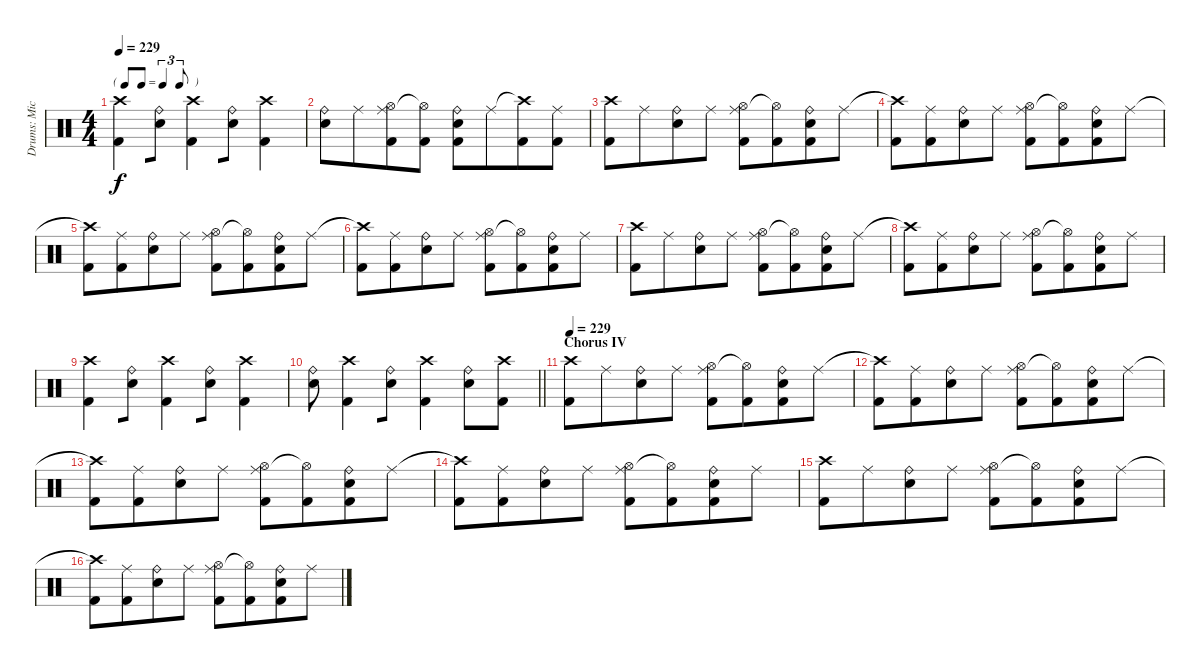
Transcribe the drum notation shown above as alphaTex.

\track ("Drums: Mick" "Drums: Mic") {instrument percussion}
\staff {score}
\articulation defaults
\ts (4 4)
\tf triplet8th
\tempo 229
\clef neutral
\ks c
("Crash high (hit)" "Kick (hit) 2").4{dy f beam merge} ("Ride (bell)" "Snare (hit) 2").8 ("Crash high (hit)" "Kick (hit) 2").4{beam merge} ("Ride (bell)" "Snare (hit) 2").8 ("Crash high (hit)" "Kick (hit) 2").4 |
("Ride (bell)" "Snare (hit) 2").8 "Ride (middle)".8{beam merge} ("Ride (middle)" "Hi-Hat (open)" "Kick (hit) 2").8 ("Hi-Hat (open)"{t} "Kick (hit) 2").8{beam split} ("Ride (bell)" "Snare (hit) 2" "Kick (hit) 2").8 "Ride (middle)".8{beam merge} ("Crash high (hit)"{t} "Kick (hit) 2").8 ("Ride (middle)" "Kick (hit) 2").8 |
("Crash high (hit)" "Kick (hit) 2").8 "Ride (middle)".8{beam merge} ("Ride (bell)" "Snare (hit) 2").8 "Ride (middle)".8 ("Ride (middle)" "Hi-Hat (open)" "Kick (hit) 2").8 ("Hi-Hat (open)"{t} "Kick (hit) 2").8{beam merge} ("Ride (bell)" "Snare (hit) 2" "Kick (hit) 2").8 "Ride (middle)".8 |
("Crash high (hit)"{t} "Kick (hit) 2").8 ("Ride (middle)" "Kick (hit) 2").8{beam merge} ("Ride (bell)" "Snare (hit) 2").8 "Ride (middle)".8 ("Ride (middle)" "Hi-Hat (open)" "Kick (hit) 2").8 ("Hi-Hat (open)"{t} "Kick (hit) 2").8{beam merge} ("Ride (bell)" "Snare (hit) 2" "Kick (hit) 2").8 "Ride (middle)".8 |
("Crash high (hit)"{t} "Kick (hit) 2").8 ("Ride (middle)" "Kick (hit) 2").8{beam merge} ("Ride (bell)" "Snare (hit) 2").8 "Ride (middle)".8 ("Ride (middle)" "Hi-Hat (open)" "Kick (hit) 2").8 ("Hi-Hat (open)"{t} "Kick (hit) 2").8{beam merge} ("Ride (bell)" "Snare (hit) 2" "Kick (hit) 2").8 "Ride (middle)".8 |
("Crash high (hit)"{t} "Kick (hit) 2").8 ("Ride (middle)" "Kick (hit) 2").8{beam merge} ("Ride (bell)" "Snare (hit) 2").8 "Ride (middle)".8 ("Ride (middle)" "Hi-Hat (open)" "Kick (hit) 2").8 ("Hi-Hat (open)"{t} "Kick (hit) 2").8{beam merge} ("Ride (bell)" "Snare (hit) 2" "Kick (hit) 2").8 "Ride (middle)".8 |
("Crash high (hit)" "Kick (hit) 2").8 "Ride (middle)".8{beam merge} ("Ride (bell)" "Snare (hit) 2").8 "Ride (middle)".8 ("Ride (middle)" "Hi-Hat (open)" "Kick (hit) 2").8 ("Hi-Hat (open)"{t} "Kick (hit) 2").8{beam merge} ("Ride (bell)" "Snare (hit) 2" "Kick (hit) 2").8 "Ride (middle)".8 |
("Crash high (hit)"{t} "Kick (hit) 2").8 ("Ride (middle)" "Kick (hit) 2").8{beam merge} ("Ride (bell)" "Snare (hit) 2").8 "Ride (middle)".8 ("Ride (middle)" "Hi-Hat (open)" "Kick (hit) 2").8 ("Hi-Hat (open)"{t} "Kick (hit) 2").8{beam merge} ("Ride (bell)" "Snare (hit) 2" "Kick (hit) 2").8 "Ride (middle)".8 |
("Crash high (hit)" "Kick (hit) 2").4{beam merge} ("Ride (bell)" "Snare (hit) 2").8 ("Crash high (hit)" "Kick (hit) 2").4{beam merge} ("Ride (bell)" "Snare (hit) 2").8 ("Crash high (hit)" "Kick (hit) 2").4 |
\barLineRight lightlight
("Ride (bell)" "Snare (hit) 2").8 ("Crash high (hit)" "Kick (hit) 2").4{beam merge} ("Ride (bell)" "Snare (hit) 2").8 ("Crash high (hit)" "Kick (hit) 2").4{beam merge} ("Ride (bell)" "Snare (hit) 2").8 ("Crash high (hit)" "Kick (hit) 2").8 |
\section ("" "Chorus IV")
\tempo 229
("Crash high (hit)" "Kick (hit) 2").8 "Ride (middle)".8{beam merge} ("Ride (bell)" "Snare (hit) 2").8 "Ride (middle)".8 ("Ride (middle)" "Hi-Hat (open)" "Kick (hit) 2").8 ("Hi-Hat (open)"{t} "Kick (hit) 2").8{beam merge} ("Ride (bell)" "Snare (hit) 2" "Kick (hit) 2").8 "Ride (middle)".8 |
("Crash high (hit)"{t} "Kick (hit) 2").8 ("Ride (middle)" "Kick (hit) 2").8{beam merge} ("Ride (bell)" "Snare (hit) 2").8 "Ride (middle)".8 ("Ride (middle)" "Hi-Hat (open)" "Kick (hit) 2").8 ("Hi-Hat (open)"{t} "Kick (hit) 2").8{beam merge} ("Ride (bell)" "Snare (hit) 2" "Kick (hit) 2").8 "Ride (middle)".8 |
("Crash high (hit)"{t} "Kick (hit) 2").8 ("Ride (middle)" "Kick (hit) 2").8{beam merge} ("Ride (bell)" "Snare (hit) 2").8 "Ride (middle)".8 ("Ride (middle)" "Hi-Hat (open)" "Kick (hit) 2").8 ("Hi-Hat (open)"{t} "Kick (hit) 2").8{beam merge} ("Ride (bell)" "Snare (hit) 2" "Kick (hit) 2").8 "Ride (middle)".8 |
("Crash high (hit)"{t} "Kick (hit) 2").8 ("Ride (middle)" "Kick (hit) 2").8{beam merge} ("Ride (bell)" "Snare (hit) 2").8 "Ride (middle)".8 ("Ride (middle)" "Hi-Hat (open)" "Kick (hit) 2").8 ("Hi-Hat (open)"{t} "Kick (hit) 2").8{beam merge} ("Ride (bell)" "Snare (hit) 2" "Kick (hit) 2").8 "Ride (middle)".8 |
("Crash high (hit)" "Kick (hit) 2").8 "Ride (middle)".8{beam merge} ("Ride (bell)" "Snare (hit) 2").8 "Ride (middle)".8 ("Ride (middle)" "Hi-Hat (open)" "Kick (hit) 2").8 ("Hi-Hat (open)"{t} "Kick (hit) 2").8{beam merge} ("Ride (bell)" "Snare (hit) 2" "Kick (hit) 2").8 "Ride (middle)".8 |
("Crash high (hit)"{t} "Kick (hit) 2").8 ("Ride (middle)" "Kick (hit) 2").8{beam merge} ("Ride (bell)" "Snare (hit) 2").8 "Ride (middle)".8 ("Ride (middle)" "Hi-Hat (open)" "Kick (hit) 2").8 ("Hi-Hat (open)"{t} "Kick (hit) 2").8{beam merge} ("Ride (bell)" "Snare (hit) 2" "Kick (hit) 2").8 "Ride (middle)".8
